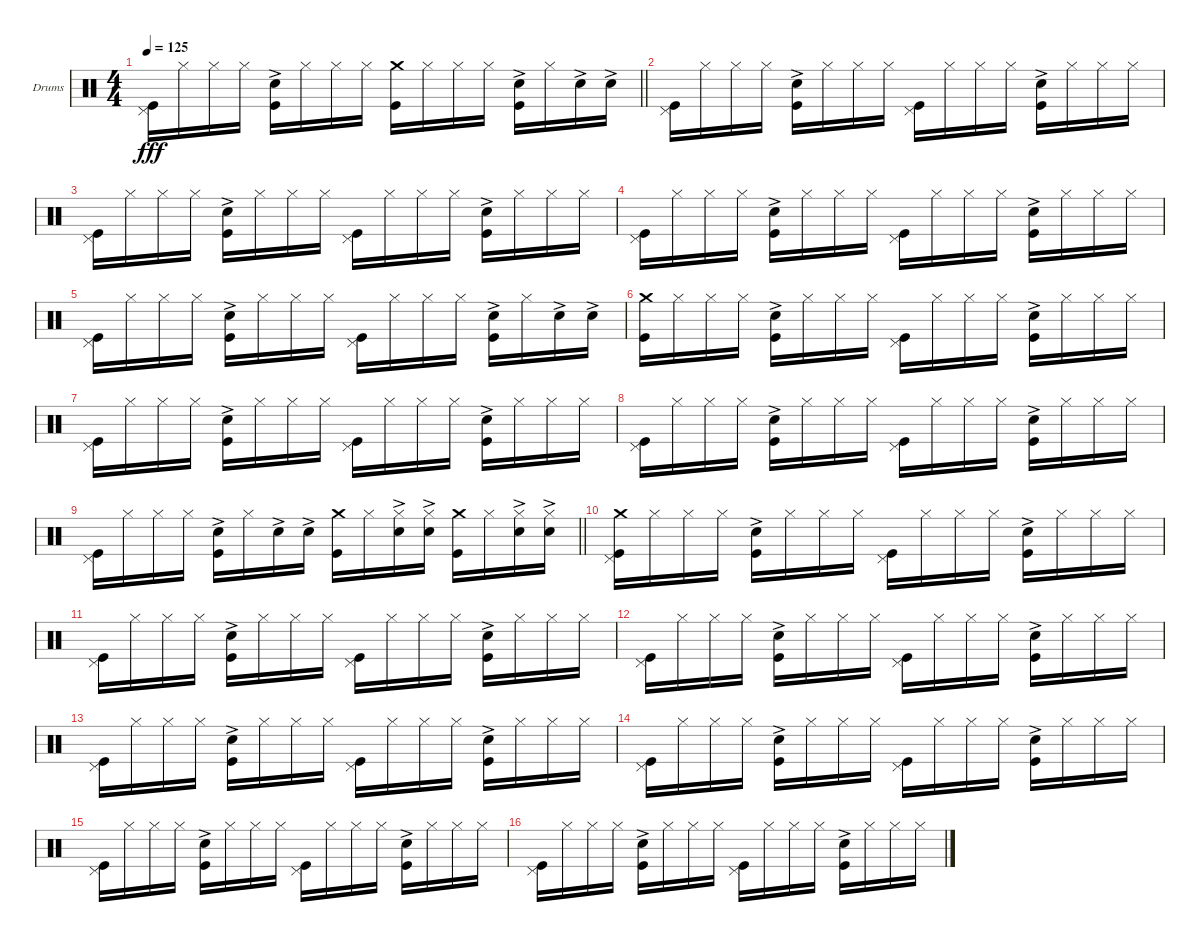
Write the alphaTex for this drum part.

\bracketExtendMode groupsimilarinstruments
\firstSystemTrackNameOrientation horizontal
\otherSystemsTrackNameOrientation horizontal
\track ("Ударники Григорий Гурьянов" "Drums") {instrument percussion}
\staff {score}
\articulation defaults
\ts (4 4)
\tempo 125
\clef neutral
\barLineRight lightlight
\ks c
("Pedal Hi-Hat (hit)" "Kick (hit)").16{dy fff} "Hi-Hat (closed)".16 "Hi-Hat (closed)".16 "Hi-Hat (closed)".16 ("Snare (hit) 2"{ac} "Kick (hit)").16 "Hi-Hat (closed)".16 "Hi-Hat (closed)".16 "Hi-Hat (closed)".16 ("Crash medium (hit)" "Kick (hit)").16 "Hi-Hat (closed)".16 "Hi-Hat (closed)".16 "Hi-Hat (closed)".16 ("Snare (hit) 2"{ac} "Kick (hit)").16 "Hi-Hat (closed)".16 "Snare (hit) 2"{ac}.16 "Snare (hit) 2"{ac}.16 |
("Pedal Hi-Hat (hit)" "Kick (hit)").16 "Hi-Hat (closed)".16 "Hi-Hat (closed)".16 "Hi-Hat (closed)".16 ("Snare (hit) 2"{ac} "Kick (hit)").16 "Hi-Hat (closed)".16 "Hi-Hat (closed)".16 "Hi-Hat (closed)".16 ("Pedal Hi-Hat (hit)" "Kick (hit)").16 "Hi-Hat (closed)".16 "Hi-Hat (closed)".16 "Hi-Hat (closed)".16 ("Snare (hit) 2"{ac} "Kick (hit)").16 "Hi-Hat (closed)".16 "Hi-Hat (closed)".16 "Hi-Hat (closed)".16 |
("Pedal Hi-Hat (hit)" "Kick (hit)").16 "Hi-Hat (closed)".16 "Hi-Hat (closed)".16 "Hi-Hat (closed)".16 ("Snare (hit) 2"{ac} "Kick (hit)").16 "Hi-Hat (closed)".16 "Hi-Hat (closed)".16 "Hi-Hat (closed)".16 ("Pedal Hi-Hat (hit)" "Kick (hit)").16 "Hi-Hat (closed)".16 "Hi-Hat (closed)".16 "Hi-Hat (closed)".16 ("Snare (hit) 2"{ac} "Kick (hit)").16 "Hi-Hat (closed)".16 "Hi-Hat (closed)".16 "Hi-Hat (closed)".16 |
("Pedal Hi-Hat (hit)" "Kick (hit)").16 "Hi-Hat (closed)".16 "Hi-Hat (closed)".16 "Hi-Hat (closed)".16 ("Snare (hit) 2"{ac} "Kick (hit)").16 "Hi-Hat (closed)".16 "Hi-Hat (closed)".16 "Hi-Hat (closed)".16 ("Pedal Hi-Hat (hit)" "Kick (hit)").16 "Hi-Hat (closed)".16 "Hi-Hat (closed)".16 "Hi-Hat (closed)".16 ("Snare (hit) 2"{ac} "Kick (hit)").16 "Hi-Hat (closed)".16 "Hi-Hat (closed)".16 "Hi-Hat (closed)".16 |
("Pedal Hi-Hat (hit)" "Kick (hit)").16 "Hi-Hat (closed)".16 "Hi-Hat (closed)".16 "Hi-Hat (closed)".16 ("Snare (hit) 2"{ac} "Kick (hit)").16 "Hi-Hat (closed)".16 "Hi-Hat (closed)".16 "Hi-Hat (closed)".16 ("Pedal Hi-Hat (hit)" "Kick (hit)").16 "Hi-Hat (closed)".16 "Hi-Hat (closed)".16 "Hi-Hat (closed)".16 ("Snare (hit) 2"{ac} "Kick (hit)").16 "Hi-Hat (closed)".16 "Snare (hit) 2"{ac}.16 "Snare (hit) 2"{ac}.16 |
("Crash medium (hit)" "Kick (hit)").16 "Hi-Hat (closed)".16 "Hi-Hat (closed)".16 "Hi-Hat (closed)".16 ("Snare (hit) 2"{ac} "Kick (hit)").16 "Hi-Hat (closed)".16 "Hi-Hat (closed)".16 "Hi-Hat (closed)".16 ("Pedal Hi-Hat (hit)" "Kick (hit)").16 "Hi-Hat (closed)".16 "Hi-Hat (closed)".16 "Hi-Hat (closed)".16 ("Snare (hit) 2"{ac} "Kick (hit)").16 "Hi-Hat (closed)".16 "Hi-Hat (closed)".16 "Hi-Hat (closed)".16 |
("Pedal Hi-Hat (hit)" "Kick (hit)").16 "Hi-Hat (closed)".16 "Hi-Hat (closed)".16 "Hi-Hat (closed)".16 ("Snare (hit) 2"{ac} "Kick (hit)").16 "Hi-Hat (closed)".16 "Hi-Hat (closed)".16 "Hi-Hat (closed)".16 ("Pedal Hi-Hat (hit)" "Kick (hit)").16 "Hi-Hat (closed)".16 "Hi-Hat (closed)".16 "Hi-Hat (closed)".16 ("Snare (hit) 2"{ac} "Kick (hit)").16 "Hi-Hat (closed)".16 "Hi-Hat (closed)".16 "Hi-Hat (closed)".16 |
("Pedal Hi-Hat (hit)" "Kick (hit)").16 "Hi-Hat (closed)".16 "Hi-Hat (closed)".16 "Hi-Hat (closed)".16 ("Snare (hit) 2"{ac} "Kick (hit)").16 "Hi-Hat (closed)".16 "Hi-Hat (closed)".16 "Hi-Hat (closed)".16 ("Pedal Hi-Hat (hit)" "Kick (hit)").16 "Hi-Hat (closed)".16 "Hi-Hat (closed)".16 "Hi-Hat (closed)".16 ("Snare (hit) 2"{ac} "Kick (hit)").16 "Hi-Hat (closed)".16 "Hi-Hat (closed)".16 "Hi-Hat (closed)".16 |
\barLineRight lightlight
("Pedal Hi-Hat (hit)" "Kick (hit)").16 "Hi-Hat (closed)".16 "Hi-Hat (closed)".16 "Hi-Hat (closed)".16 ("Snare (hit) 2"{ac} "Kick (hit)").16 "Hi-Hat (closed)".16 "Snare (hit) 2"{ac}.16 "Snare (hit) 2"{ac}.16 ("Crash medium (hit)" "Kick (hit)").16 "Hi-Hat (closed)".16 ("Hi-Hat (closed)" "Snare (hit) 2"{ac}).16 ("Hi-Hat (closed)" "Snare (hit) 2"{ac}).16 ("Crash medium (hit)" "Kick (hit)").16 "Hi-Hat (closed)".16 ("Hi-Hat (closed)" "Snare (hit) 2"{ac}).16 ("Hi-Hat (closed)" "Snare (hit) 2"{ac}).16 |
("Pedal Hi-Hat (hit)" "Crash medium (hit)" "Kick (hit)").16 "Hi-Hat (closed)".16 "Hi-Hat (closed)".16 "Hi-Hat (closed)".16 ("Snare (hit) 2"{ac} "Kick (hit)").16 "Hi-Hat (closed)".16 "Hi-Hat (closed)".16 "Hi-Hat (closed)".16 ("Pedal Hi-Hat (hit)" "Kick (hit)").16 "Hi-Hat (closed)".16 "Hi-Hat (closed)".16 "Hi-Hat (closed)".16 ("Snare (hit) 2"{ac} "Kick (hit)").16 "Hi-Hat (closed)".16 "Hi-Hat (closed)".16 "Hi-Hat (closed)".16 |
("Pedal Hi-Hat (hit)" "Kick (hit)").16 "Hi-Hat (closed)".16 "Hi-Hat (closed)".16 "Hi-Hat (closed)".16 ("Snare (hit) 2"{ac} "Kick (hit)").16 "Hi-Hat (closed)".16 "Hi-Hat (closed)".16 "Hi-Hat (closed)".16 ("Pedal Hi-Hat (hit)" "Kick (hit)").16 "Hi-Hat (closed)".16 "Hi-Hat (closed)".16 "Hi-Hat (closed)".16 ("Snare (hit) 2"{ac} "Kick (hit)").16 "Hi-Hat (closed)".16 "Hi-Hat (closed)".16 "Hi-Hat (closed)".16 |
("Pedal Hi-Hat (hit)" "Kick (hit)").16 "Hi-Hat (closed)".16 "Hi-Hat (closed)".16 "Hi-Hat (closed)".16 ("Snare (hit) 2"{ac} "Kick (hit)").16 "Hi-Hat (closed)".16 "Hi-Hat (closed)".16 "Hi-Hat (closed)".16 ("Pedal Hi-Hat (hit)" "Kick (hit)").16 "Hi-Hat (closed)".16 "Hi-Hat (closed)".16 "Hi-Hat (closed)".16 ("Snare (hit) 2"{ac} "Kick (hit)").16 "Hi-Hat (closed)".16 "Hi-Hat (closed)".16 "Hi-Hat (closed)".16 |
("Pedal Hi-Hat (hit)" "Kick (hit)").16 "Hi-Hat (closed)".16 "Hi-Hat (closed)".16 "Hi-Hat (closed)".16 ("Snare (hit) 2"{ac} "Kick (hit)").16 "Hi-Hat (closed)".16 "Hi-Hat (closed)".16 "Hi-Hat (closed)".16 ("Pedal Hi-Hat (hit)" "Kick (hit)").16 "Hi-Hat (closed)".16 "Hi-Hat (closed)".16 "Hi-Hat (closed)".16 ("Snare (hit) 2"{ac} "Kick (hit)").16 "Hi-Hat (closed)".16 "Hi-Hat (closed)".16 "Hi-Hat (closed)".16 |
("Pedal Hi-Hat (hit)" "Kick (hit)").16 "Hi-Hat (closed)".16 "Hi-Hat (closed)".16 "Hi-Hat (closed)".16 ("Snare (hit) 2"{ac} "Kick (hit)").16 "Hi-Hat (closed)".16 "Hi-Hat (closed)".16 "Hi-Hat (closed)".16 ("Pedal Hi-Hat (hit)" "Kick (hit)").16 "Hi-Hat (closed)".16 "Hi-Hat (closed)".16 "Hi-Hat (closed)".16 ("Snare (hit) 2"{ac} "Kick (hit)").16 "Hi-Hat (closed)".16 "Hi-Hat (closed)".16 "Hi-Hat (closed)".16 |
("Pedal Hi-Hat (hit)" "Kick (hit)").16 "Hi-Hat (closed)".16 "Hi-Hat (closed)".16 "Hi-Hat (closed)".16 ("Snare (hit) 2"{ac} "Kick (hit)").16 "Hi-Hat (closed)".16 "Hi-Hat (closed)".16 "Hi-Hat (closed)".16 ("Pedal Hi-Hat (hit)" "Kick (hit)").16 "Hi-Hat (closed)".16 "Hi-Hat (closed)".16 "Hi-Hat (closed)".16 ("Snare (hit) 2"{ac} "Kick (hit)").16 "Hi-Hat (closed)".16 "Hi-Hat (closed)".16 "Hi-Hat (closed)".16 |
("Pedal Hi-Hat (hit)" "Kick (hit)").16 "Hi-Hat (closed)".16 "Hi-Hat (closed)".16 "Hi-Hat (closed)".16 ("Snare (hit) 2"{ac} "Kick (hit)").16 "Hi-Hat (closed)".16 "Hi-Hat (closed)".16 "Hi-Hat (closed)".16 ("Pedal Hi-Hat (hit)" "Kick (hit)").16 "Hi-Hat (closed)".16 "Hi-Hat (closed)".16 "Hi-Hat (closed)".16 ("Snare (hit) 2"{ac} "Kick (hit)").16 "Hi-Hat (closed)".16 "Hi-Hat (closed)".16 "Hi-Hat (closed)".16
